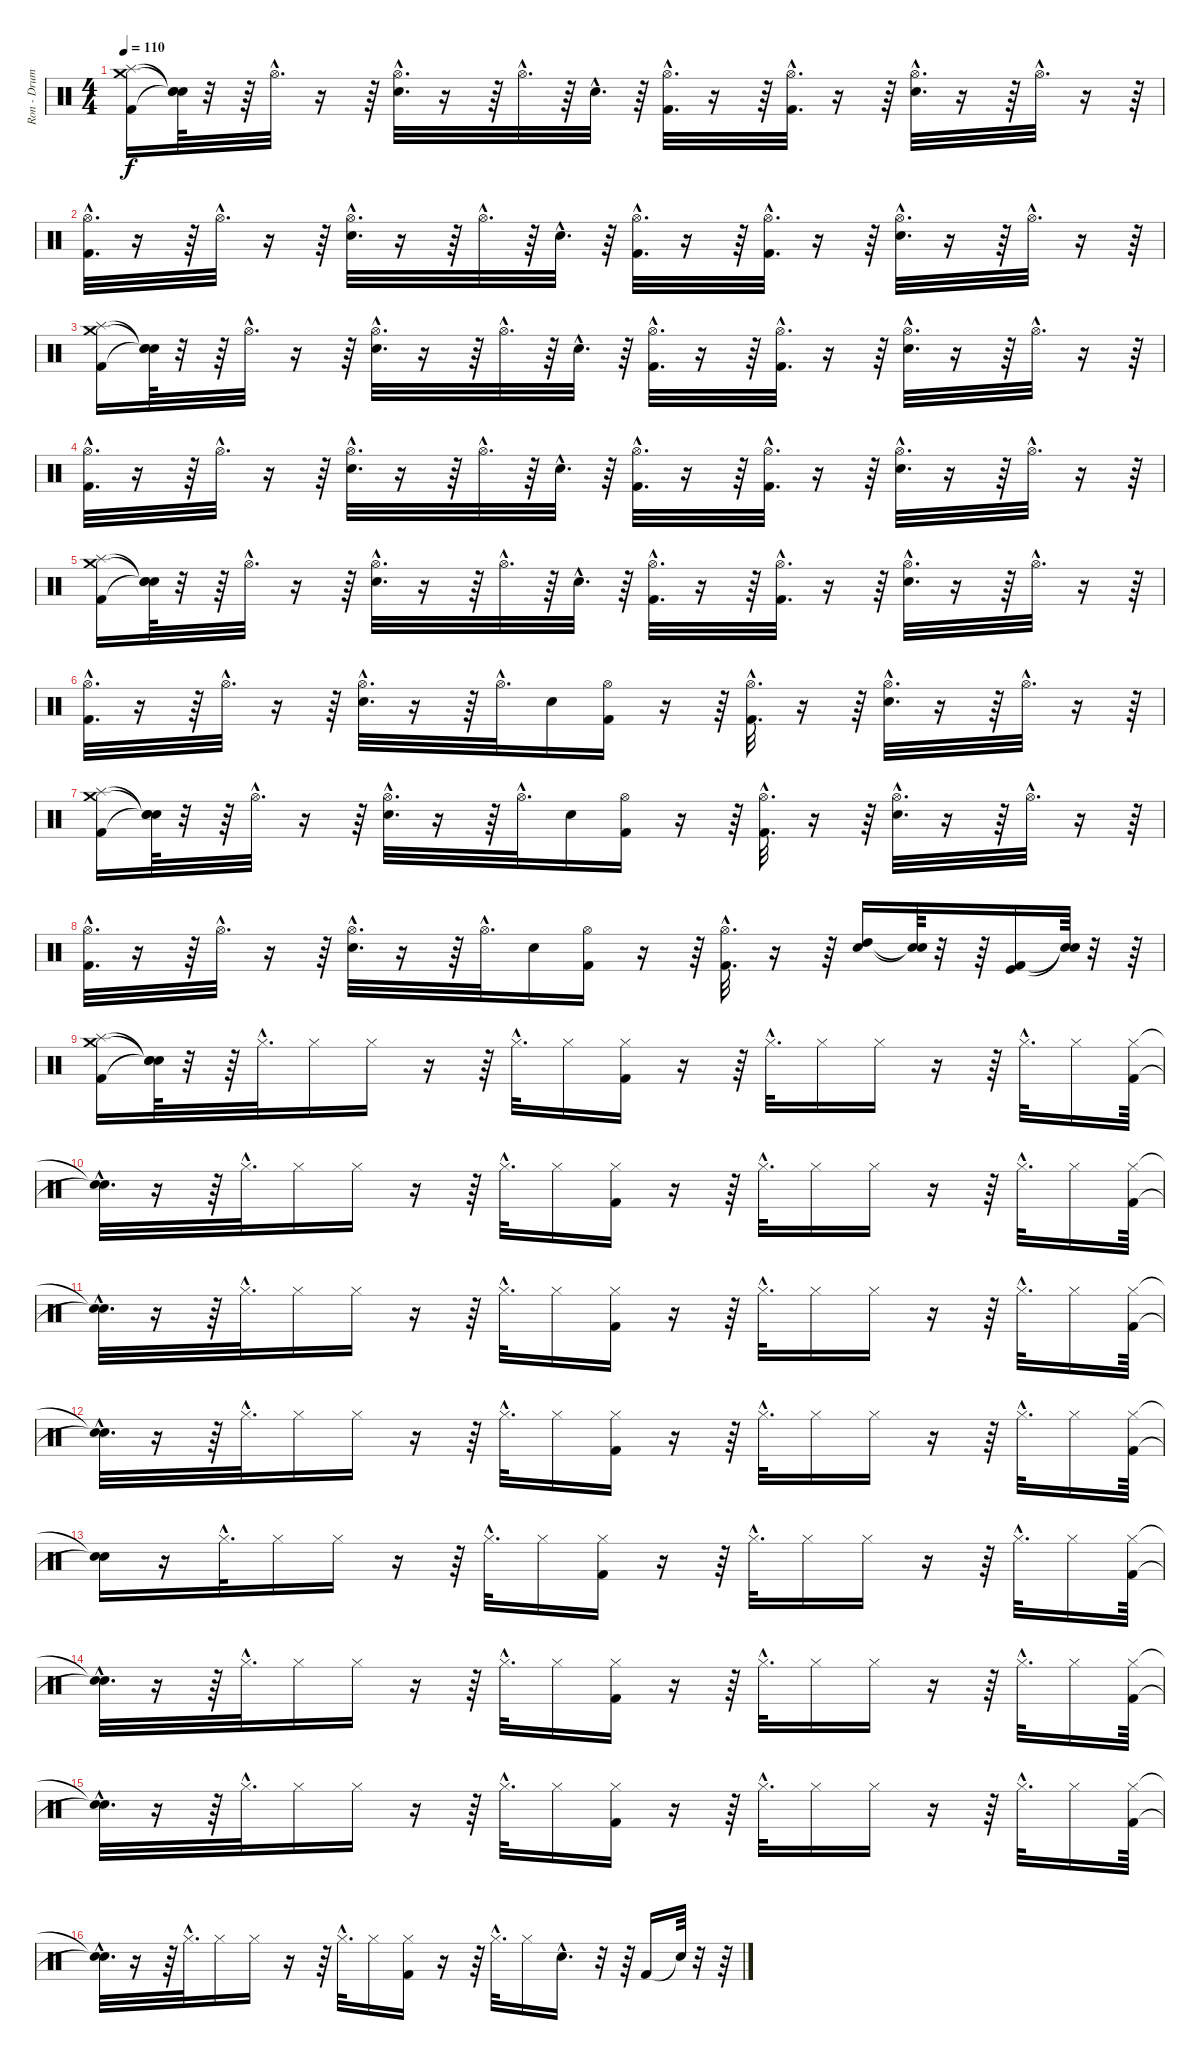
\track ("Ron - Drums" "Ron - Drum") {instrument percussion}
\staff {score}
\articulation defaults
\ts (4 4)
\tempo 110
\clef neutral
\ks c
("Crash medium (hit)" "Splash (hit)" "Kick (hit) 2").16{dy f} ("Snare (hit)"{t} "Snare (hit)"{t} "Snare (hit)"{t}).64 r.32 r.64 "Hi-Hat (open)"{hac}.32{d} r.16 r.64 ("Hi-Hat (open)"{hac} "Electric Snare (hit)"{hac}).32{d} r.16 r.64 "Hi-Hat (open)"{hac}.32{d} r.64 "Electric Snare (hit)"{hac}.32{d} r.64 ("Hi-Hat (open)"{hac} "Kick (hit) 2"{hac}).32{d} r.16 r.64 ("Hi-Hat (open)"{hac} "Kick (hit) 2"{hac}).32{d} r.16 r.64 ("Hi-Hat (open)"{hac} "Electric Snare (hit)"{hac}).32{d} r.16 r.64 "Hi-Hat (open)"{hac}.32{d} r.16 r.64 |
("Hi-Hat (open)"{hac} "Kick (hit) 2"{hac}).32{d} r.16 r.64 "Hi-Hat (open)"{hac}.32{d} r.16 r.64 ("Hi-Hat (open)"{hac} "Electric Snare (hit)"{hac}).32{d} r.16 r.64 "Hi-Hat (open)"{hac}.32{d} r.64 "Electric Snare (hit)"{hac}.32{d} r.64 ("Hi-Hat (open)"{hac} "Kick (hit) 2"{hac}).32{d} r.16 r.64 ("Hi-Hat (open)"{hac} "Kick (hit) 2"{hac}).32{d} r.16 r.64 ("Hi-Hat (open)"{hac} "Electric Snare (hit)"{hac}).32{d} r.16 r.64 "Hi-Hat (open)"{hac}.32{d} r.16 r.64 |
("Crash medium (hit)" "Splash (hit)" "Kick (hit) 2").16 ("Snare (hit)"{t} "Snare (hit)"{t} "Snare (hit)"{t}).64 r.32 r.64 "Hi-Hat (open)"{hac}.32{d} r.16 r.64 ("Hi-Hat (open)"{hac} "Electric Snare (hit)"{hac}).32{d} r.16 r.64 "Hi-Hat (open)"{hac}.32{d} r.64 "Electric Snare (hit)"{hac}.32{d} r.64 ("Hi-Hat (open)"{hac} "Kick (hit) 2"{hac}).32{d} r.16 r.64 ("Hi-Hat (open)"{hac} "Kick (hit) 2"{hac}).32{d} r.16 r.64 ("Hi-Hat (open)"{hac} "Electric Snare (hit)"{hac}).32{d} r.16 r.64 "Hi-Hat (open)"{hac}.32{d} r.16 r.64 |
("Hi-Hat (open)"{hac} "Kick (hit) 2"{hac}).32{d} r.16 r.64 "Hi-Hat (open)"{hac}.32{d} r.16 r.64 ("Hi-Hat (open)"{hac} "Electric Snare (hit)"{hac}).32{d} r.16 r.64 "Hi-Hat (open)"{hac}.32{d} r.64 "Electric Snare (hit)"{hac}.32{d} r.64 ("Hi-Hat (open)"{hac} "Kick (hit) 2"{hac}).32{d} r.16 r.64 ("Hi-Hat (open)"{hac} "Kick (hit) 2"{hac}).32{d} r.16 r.64 ("Hi-Hat (open)"{hac} "Electric Snare (hit)"{hac}).32{d} r.16 r.64 "Hi-Hat (open)"{hac}.32{d} r.16 r.64 |
("Crash medium (hit)" "Splash (hit)" "Kick (hit) 2").16 ("Snare (hit)"{t} "Snare (hit)"{t} "Snare (hit)"{t}).64 r.32 r.64 "Hi-Hat (open)"{hac}.32{d} r.16 r.64 ("Hi-Hat (open)"{hac} "Electric Snare (hit)"{hac}).32{d} r.16 r.64 "Hi-Hat (open)"{hac}.32{d} r.64 "Electric Snare (hit)"{hac}.32{d} r.64 ("Hi-Hat (open)"{hac} "Kick (hit) 2"{hac}).32{d} r.16 r.64 ("Hi-Hat (open)"{hac} "Kick (hit) 2"{hac}).32{d} r.16 r.64 ("Hi-Hat (open)"{hac} "Electric Snare (hit)"{hac}).32{d} r.16 r.64 "Hi-Hat (open)"{hac}.32{d} r.16 r.64 |
("Hi-Hat (open)"{hac} "Kick (hit) 2"{hac}).32{d} r.16 r.64 "Hi-Hat (open)"{hac}.32{d} r.16 r.64 ("Hi-Hat (open)"{hac} "Electric Snare (hit)"{hac}).32{d} r.16 r.64 "Hi-Hat (open)"{hac}.32{d} "Electric Snare (hit)".16 ("Hi-Hat (open)" "Kick (hit) 2").16 r.16 r.64 ("Hi-Hat (open)"{hac} "Kick (hit) 2"{hac}).32{d} r.16 r.64 ("Hi-Hat (open)"{hac} "Electric Snare (hit)"{hac}).32{d} r.16 r.64 "Hi-Hat (open)"{hac}.32{d} r.16 r.64 |
("Crash medium (hit)" "Splash (hit)" "Kick (hit) 2").16 ("Snare (hit)"{t} "Snare (hit)"{t} "Snare (hit)"{t}).64 r.32 r.64 "Hi-Hat (open)"{hac}.32{d} r.16 r.64 ("Hi-Hat (open)"{hac} "Electric Snare (hit)"{hac}).32{d} r.16 r.64 "Hi-Hat (open)"{hac}.32{d} "Electric Snare (hit)".16 ("Hi-Hat (open)" "Kick (hit) 2").16 r.16 r.64 ("Hi-Hat (open)"{hac} "Kick (hit) 2"{hac}).32{d} r.16 r.64 ("Hi-Hat (open)"{hac} "Electric Snare (hit)"{hac}).32{d} r.16 r.64 "Hi-Hat (open)"{hac}.32{d} r.16 r.64 |
("Hi-Hat (open)"{hac} "Kick (hit) 2"{hac}).32{d} r.16 r.64 "Hi-Hat (open)"{hac}.32{d} r.16 r.64 ("Hi-Hat (open)"{hac} "Electric Snare (hit)"{hac}).32{d} r.16 r.64 "Hi-Hat (open)"{hac}.32{d} "Electric Snare (hit)".16 ("Hi-Hat (open)" "Kick (hit) 2").16 r.16 r.64 ("Hi-Hat (open)"{hac} "Kick (hit) 2"{hac}).32{d} r.16 r.64 ("High Tom (hit)" "Electric Snare (hit)").16 ("Snare (hit)"{t} "Snare (hit)"{t}).64 r.32 r.64 ("Kick (hit) 2" "Kick (hit)").16 ("Snare (hit)"{t} "Snare (hit)"{t}).64 r.32 r.64 |
("Kick (hit) 2" "Crash medium (hit)" "Splash (hit)").16 ("Snare (hit)"{t} "Snare (hit)"{t} "Snare (hit)"{t}).64 r.32 r.64 "Hi-Hat (closed)"{hac}.32{d} "Hi-Hat (closed)".16 "Hi-Hat (closed)".16 r.16 r.64 "Hi-Hat (closed)"{hac}.32{d} "Hi-Hat (closed)".16 ("Hi-Hat (closed)" "Kick (hit) 2").16 r.16 r.64 "Hi-Hat (closed)"{hac}.32{d} "Hi-Hat (closed)".16 "Hi-Hat (closed)".16 r.16 r.64 "Hi-Hat (closed)"{hac}.32{d} "Hi-Hat (closed)".16 ("Kick (hit) 2" "Hi-Hat (closed)").64 |
("Snare (hit)"{hac t} "Snare (hit)"{hac t}).32{d} r.16 r.64 "Hi-Hat (closed)"{hac}.32{d} "Hi-Hat (closed)".16 "Hi-Hat (closed)".16 r.16 r.64 "Hi-Hat (closed)"{hac}.32{d} "Hi-Hat (closed)".16 ("Hi-Hat (closed)" "Kick (hit) 2").16 r.16 r.64 "Hi-Hat (closed)"{hac}.32{d} "Hi-Hat (closed)".16 "Hi-Hat (closed)".16 r.16 r.64 "Hi-Hat (closed)"{hac}.32{d} "Hi-Hat (closed)".16 ("Kick (hit) 2" "Hi-Hat (closed)").64 |
("Snare (hit)"{hac t} "Snare (hit)"{hac t}).32{d} r.16 r.64 "Hi-Hat (closed)"{hac}.32{d} "Hi-Hat (closed)".16 "Hi-Hat (closed)".16 r.16 r.64 "Hi-Hat (closed)"{hac}.32{d} "Hi-Hat (closed)".16 ("Hi-Hat (closed)" "Kick (hit) 2").16 r.16 r.64 "Hi-Hat (closed)"{hac}.32{d} "Hi-Hat (closed)".16 "Hi-Hat (closed)".16 r.16 r.64 "Hi-Hat (closed)"{hac}.32{d} "Hi-Hat (closed)".16 ("Kick (hit) 2" "Hi-Hat (closed)").64 |
("Snare (hit)"{hac t} "Snare (hit)"{hac t}).32{d} r.16 r.64 "Hi-Hat (closed)"{hac}.32{d} "Hi-Hat (closed)".16 "Hi-Hat (closed)".16 r.16 r.64 "Hi-Hat (closed)"{hac}.32{d} "Hi-Hat (closed)".16 ("Hi-Hat (closed)" "Kick (hit) 2").16 r.16 r.64 "Hi-Hat (closed)"{hac}.32{d} "Hi-Hat (closed)".16 "Hi-Hat (closed)".16 r.16 r.64 "Hi-Hat (closed)"{hac}.32{d} "Hi-Hat (closed)".16 ("Kick (hit) 2" "Hi-Hat (closed)").64 |
("Snare (hit)"{t} "Snare (hit)"{t}).16 r.16 "Hi-Hat (closed)"{hac}.32{d} "Hi-Hat (closed)".16 "Hi-Hat (closed)".16 r.16 r.64 "Hi-Hat (closed)"{hac}.32{d} "Hi-Hat (closed)".16 ("Hi-Hat (closed)" "Kick (hit) 2").16 r.16 r.64 "Hi-Hat (closed)"{hac}.32{d} "Hi-Hat (closed)".16 "Hi-Hat (closed)".16 r.16 r.64 "Hi-Hat (closed)"{hac}.32{d} "Hi-Hat (closed)".16 ("Kick (hit) 2" "Hi-Hat (closed)").64 |
("Snare (hit)"{hac t} "Snare (hit)"{hac t}).32{d} r.16 r.64 "Hi-Hat (closed)"{hac}.32{d} "Hi-Hat (closed)".16 "Hi-Hat (closed)".16 r.16 r.64 "Hi-Hat (closed)"{hac}.32{d} "Hi-Hat (closed)".16 ("Hi-Hat (closed)" "Kick (hit) 2").16 r.16 r.64 "Hi-Hat (closed)"{hac}.32{d} "Hi-Hat (closed)".16 "Hi-Hat (closed)".16 r.16 r.64 "Hi-Hat (closed)"{hac}.32{d} "Hi-Hat (closed)".16 ("Kick (hit) 2" "Hi-Hat (closed)").64 |
("Snare (hit)"{hac t} "Snare (hit)"{hac t}).32{d} r.16 r.64 "Hi-Hat (closed)"{hac}.32{d} "Hi-Hat (closed)".16 "Hi-Hat (closed)".16 r.16 r.64 "Hi-Hat (closed)"{hac}.32{d} "Hi-Hat (closed)".16 ("Hi-Hat (closed)" "Kick (hit) 2").16 r.16 r.64 "Hi-Hat (closed)"{hac}.32{d} "Hi-Hat (closed)".16 "Hi-Hat (closed)".16 r.16 r.64 "Hi-Hat (closed)"{hac}.32{d} "Hi-Hat (closed)".16 ("Kick (hit) 2" "Hi-Hat (closed)").64 |
("Snare (hit)"{hac t} "Snare (hit)"{hac t}).32{d} r.16 r.64 "Hi-Hat (closed)"{hac}.32{d} "Hi-Hat (closed)".16 "Hi-Hat (closed)".16 r.16 r.64 "Hi-Hat (closed)"{hac}.32{d} "Hi-Hat (closed)".16 ("Hi-Hat (closed)" "Kick (hit) 2").16 r.16 r.64 "Hi-Hat (closed)"{hac}.32{d} "Hi-Hat (closed)".16 "Electric Snare (hit)"{hac}.16{d} r.32 r.64 "Kick (hit) 2".16 "Snare (hit)"{t}.64 r.32 r.64
